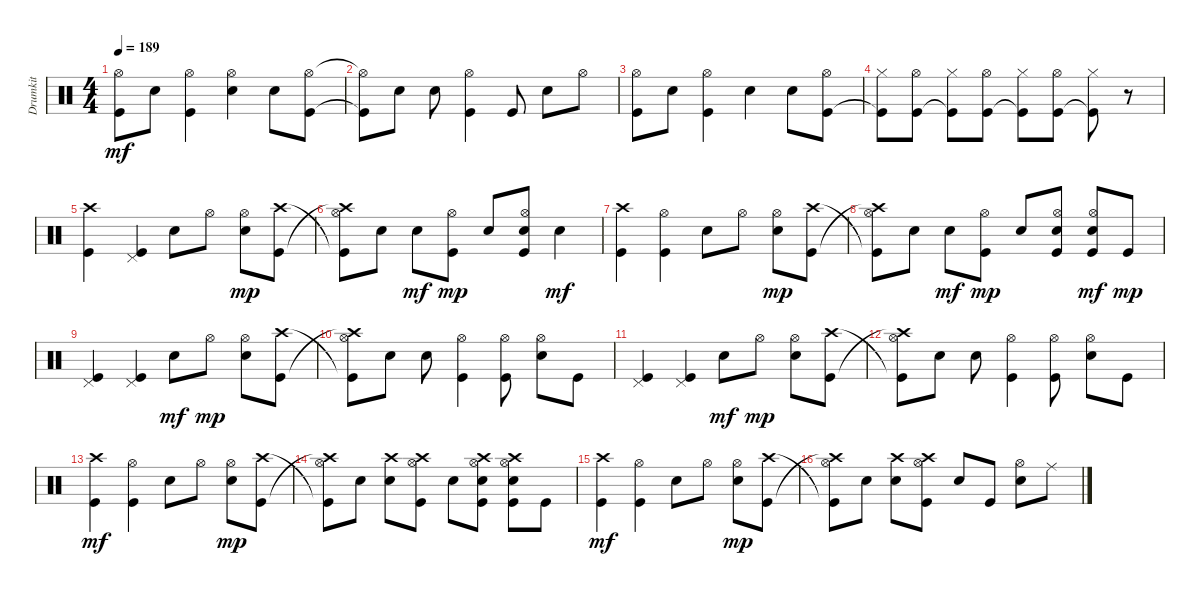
\track ("Drumkit" "Drumkit") {instrument percussion}
\staff {score}
\articulation defaults
\ts (4 4)
\tempo 189
\clef neutral
\ks c
("Kick (hit)" "Hi-Hat (open)").8{dy mf} "Snare (hit) 2".8 ("Kick (hit)" "Hi-Hat (open)").4 ("Snare (hit) 2" "Hi-Hat (open)").4 "Snare (hit) 2".8 ("Kick (hit)" "Hi-Hat (open)").8 |
("Kick (hit)"{t} "Hi-Hat (open)"{t}).8 "Snare (hit) 2".8 "Snare (hit) 2".8 ("Kick (hit)" "Hi-Hat (open)").4 "Kick (hit)".8 "Snare (hit) 2".8 "Hi-Hat (open)".8 |
("Kick (hit)" "Hi-Hat (open)").8 "Snare (hit) 2".8 ("Kick (hit)" "Hi-Hat (open)").4 "Snare (hit) 2".4 "Snare (hit) 2".8 ("Kick (hit)" "Hi-Hat (open)").8 |
("Kick (hit)"{t} "Hi-Hat (closed)").8 ("Kick (hit)" "Hi-Hat (open)").8 ("Kick (hit)"{t} "Hi-Hat (closed)").8 ("Kick (hit)" "Hi-Hat (open)").8 ("Kick (hit)"{t} "Hi-Hat (closed)").8 ("Kick (hit)" "Hi-Hat (open)").8 ("Kick (hit)"{t} "Hi-Hat (closed)").8 r.8 |
("Kick (hit)" "Crash high (hit)").4 ("Kick (hit)" "Pedal Hi-Hat (hit)").4 "Snare (hit) 2".8 "Hi-Hat (open)".8 ("Snare (hit) 2" "Hi-Hat (open)").8{dy mp} ("Kick (hit)" "Crash high (hit)").8 |
("Crash high (hit)"{t} "Kick (hit)"{t} "Hi-Hat (open)").8 "Snare (hit) 2".8 "Snare (hit) 2".8{dy mf} ("Hi-Hat (open)" "Kick (hit)").8{dy mp} "Snare (hit) 2".8 ("Snare (hit) 2" "Kick (hit)" "Hi-Hat (open)").8 "Snare (hit) 2".4{dy mf} |
("Kick (hit)" "Crash high (hit)").4 ("Kick (hit)" "Hi-Hat (open)").4 "Snare (hit) 2".8 "Hi-Hat (open)".8 ("Snare (hit) 2" "Hi-Hat (open)").8{dy mp} ("Kick (hit)" "Crash high (hit)").8 |
("Crash high (hit)"{t} "Kick (hit)"{t} "Hi-Hat (open)").8 "Snare (hit) 2".8 "Snare (hit) 2".8{dy mf} ("Hi-Hat (open)" "Kick (hit)").8{dy mp} "Snare (hit) 2".8 ("Snare (hit) 2" "Kick (hit)" "Hi-Hat (open)").8 ("Snare (hit) 2" "Kick (hit)" "Hi-Hat (open)").8{dy mf} "Kick (hit)".8{dy mp} |
("Kick (hit)" "Pedal Hi-Hat (hit)").4 ("Kick (hit)" "Pedal Hi-Hat (hit)").4 "Snare (hit) 2".8{dy mf} "Hi-Hat (open)".8{dy mp} ("Snare (hit) 2" "Hi-Hat (open)").8 ("Kick (hit)" "Crash high (hit)").8 |
("Crash high (hit)"{t} "Kick (hit)"{t} "Hi-Hat (open)").8 "Snare (hit) 2".8 "Snare (hit) 2".8 ("Hi-Hat (open)" "Kick (hit)").4 ("Kick (hit)" "Hi-Hat (open)").8 ("Snare (hit) 2" "Hi-Hat (open)").8 "Kick (hit)".8 |
("Kick (hit)" "Pedal Hi-Hat (hit)").4 ("Kick (hit)" "Pedal Hi-Hat (hit)").4 "Snare (hit) 2".8{dy mf} "Hi-Hat (open)".8{dy mp} ("Snare (hit) 2" "Hi-Hat (open)").8 ("Kick (hit)" "Crash high (hit)").8 |
("Crash high (hit)"{t} "Kick (hit)"{t} "Hi-Hat (open)").8 "Snare (hit) 2".8 "Snare (hit) 2".8 ("Hi-Hat (open)" "Kick (hit)").4 ("Kick (hit)" "Hi-Hat (open)").8 ("Snare (hit) 2" "Hi-Hat (open)").8 "Kick (hit)".8 |
("Kick (hit)" "Crash high (hit)").4{dy mf} ("Kick (hit)" "Hi-Hat (open)").4 "Snare (hit) 2".8 "Hi-Hat (open)".8 ("Snare (hit) 2" "Hi-Hat (open)").8{dy mp} ("Kick (hit)" "Crash high (hit)").8 |
("Crash high (hit)"{t} "Kick (hit)"{t} "Hi-Hat (open)").8 "Snare (hit) 2".8 ("Snare (hit) 2" "Crash high (hit)").8 ("Hi-Hat (open)" "Kick (hit)" "Crash high (hit)").8 "Snare (hit) 2".8 ("Snare (hit) 2" "Kick (hit)" "Hi-Hat (open)" "Crash high (hit)").8 ("Snare (hit) 2" "Kick (hit)" "Hi-Hat (open)" "Crash high (hit)").8 "Kick (hit)".8 |
("Kick (hit)" "Crash high (hit)").4{dy mf} ("Kick (hit)" "Hi-Hat (open)").4 "Snare (hit) 2".8 "Hi-Hat (open)".8 ("Snare (hit) 2" "Hi-Hat (open)").8{dy mp} ("Kick (hit)" "Crash high (hit)").8 |
("Crash high (hit)"{t} "Kick (hit)"{t} "Hi-Hat (open)").8 "Snare (hit) 2".8 ("Snare (hit) 2" "Crash high (hit)").8 ("Hi-Hat (open)" "Kick (hit)" "Crash high (hit)").8 "Snare (hit) 2".8 "Kick (hit)".8 ("Snare (hit) 2" "Hi-Hat (open)").8 "Ride (middle)".8
